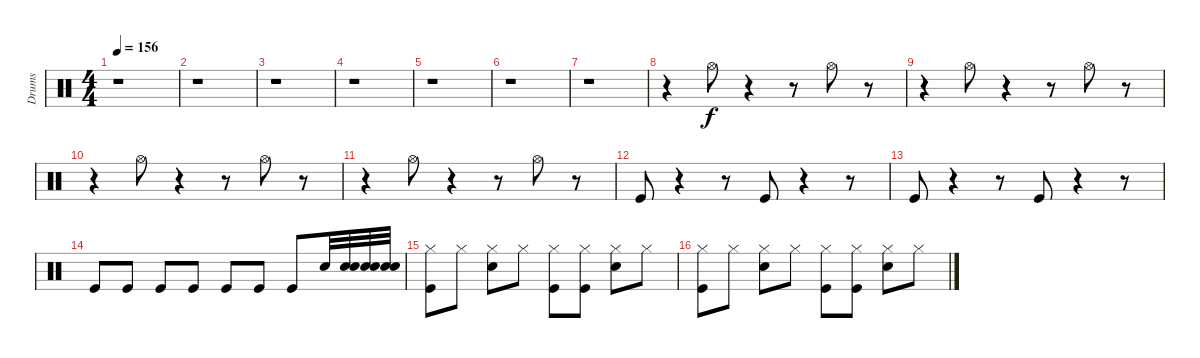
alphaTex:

\track ("Drums" "Drums") {instrument percussion}
\staff {score}
\articulation defaults
\ts (4 4)
\tempo 156
\clef neutral
\ks c
r.1{dy f} |
r.1 |
r.1 |
r.1 |
r.1 |
r.1 |
r.1 |
r.4 "Hi-Hat (open)".8 r.4 r.8 "Hi-Hat (open)".8 r.8 |
r.4 "Hi-Hat (open)".8 r.4 r.8 "Hi-Hat (open)".8 r.8 |
r.4 "Hi-Hat (open)".8 r.4 r.8 "Hi-Hat (open)".8 r.8 |
r.4 "Hi-Hat (open)".8 r.4 r.8 "Hi-Hat (open)".8 r.8 |
"Kick (hit)".8 r.4 r.8 "Kick (hit)".8 r.4 r.8 |
"Kick (hit)".8 r.4 r.8 "Kick (hit)".8 r.4 r.8 |
"Kick (hit)".8 "Kick (hit)".8 "Kick (hit)".8 "Kick (hit)".8 "Kick (hit)".8 "Kick (hit)".8 "Kick (hit)".8 "Electric Snare (hit)".32 ("Snare (hit) 2" "Electric Snare (hit)").32 ("Snare (hit) 2" "Electric Snare (hit)").32 ("Snare (hit) 2" "Electric Snare (hit)").32 |
("Kick (hit)" "Hi-Hat (closed)").8 "Hi-Hat (closed)".8 ("Snare (hit) 2" "Hi-Hat (closed)").8 "Hi-Hat (closed)".8 ("Kick (hit)" "Hi-Hat (closed)").8 ("Kick (hit)" "Hi-Hat (closed)").8 ("Snare (hit) 2" "Hi-Hat (closed)").8 "Hi-Hat (closed)".8 |
("Kick (hit)" "Hi-Hat (closed)").8 "Hi-Hat (closed)".8 ("Snare (hit) 2" "Hi-Hat (closed)").8 "Hi-Hat (closed)".8 ("Kick (hit)" "Hi-Hat (closed)").8 ("Kick (hit)" "Hi-Hat (closed)").8 ("Snare (hit) 2" "Hi-Hat (closed)").8 "Hi-Hat (closed)".8
